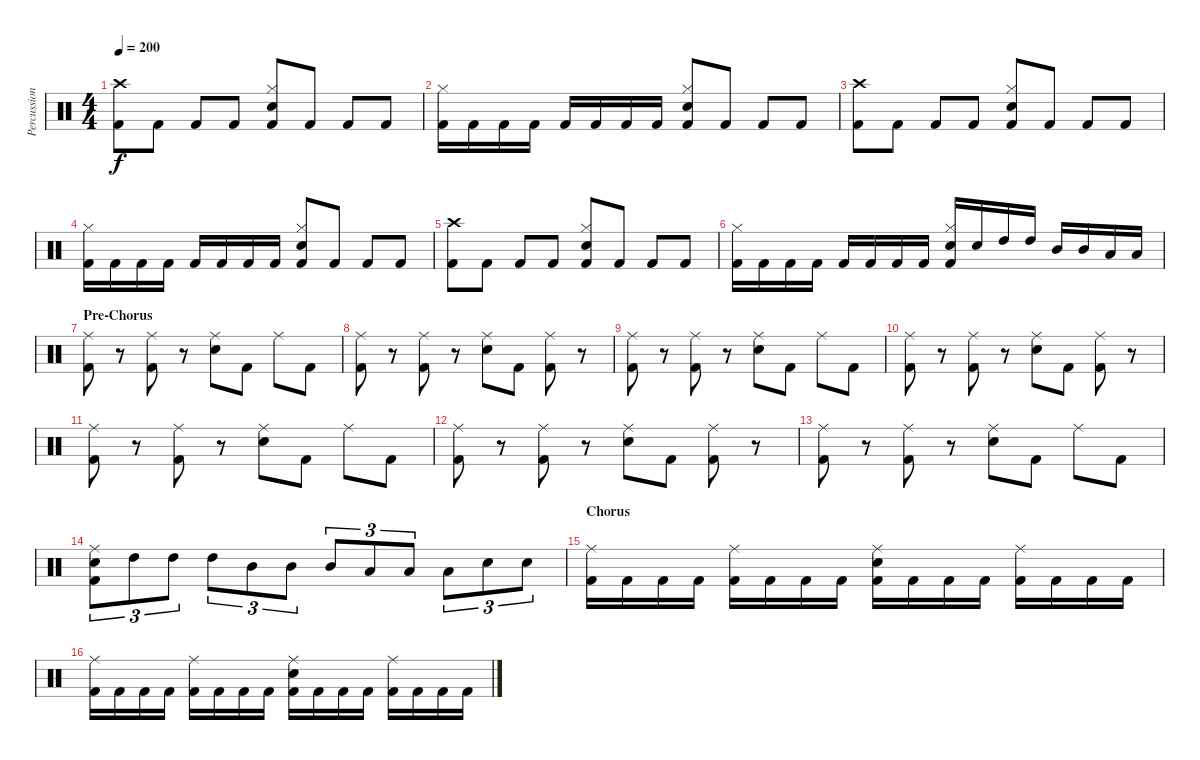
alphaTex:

\track ("Percussions" "Percussion") {instrument percussion}
\staff {score}
\articulation defaults
\ts (4 4)
\tempo 200
\clef neutral
\ks c
("Crash high (hit)" "Kick (hit) 2").8{dy f} "Kick (hit) 2".8 "Kick (hit) 2".8 "Kick (hit) 2".8 ("Hi-Hat (closed)" "Electric Snare (hit)" "Kick (hit) 2").8 "Kick (hit) 2".8 "Kick (hit) 2".8 "Kick (hit) 2".8 |
("Hi-Hat (closed)" "Kick (hit) 2").16 "Kick (hit) 2".16 "Kick (hit) 2".16 "Kick (hit) 2".16 "Kick (hit) 2".16 "Kick (hit) 2".16 "Kick (hit) 2".16 "Kick (hit) 2".16 ("Hi-Hat (closed)" "Electric Snare (hit)" "Kick (hit) 2").8 "Kick (hit) 2".8 "Kick (hit) 2".8 "Kick (hit) 2".8 |
("Crash high (hit)" "Kick (hit) 2").8 "Kick (hit) 2".8 "Kick (hit) 2".8 "Kick (hit) 2".8 ("Hi-Hat (closed)" "Electric Snare (hit)" "Kick (hit) 2").8 "Kick (hit) 2".8 "Kick (hit) 2".8 "Kick (hit) 2".8 |
("Hi-Hat (closed)" "Kick (hit) 2").16 "Kick (hit) 2".16 "Kick (hit) 2".16 "Kick (hit) 2".16 "Kick (hit) 2".16 "Kick (hit) 2".16 "Kick (hit) 2".16 "Kick (hit) 2".16 ("Hi-Hat (closed)" "Electric Snare (hit)" "Kick (hit) 2").8 "Kick (hit) 2".8 "Kick (hit) 2".8 "Kick (hit) 2".8 |
("Crash high (hit)" "Kick (hit) 2").8 "Kick (hit) 2".8 "Kick (hit) 2".8 "Kick (hit) 2".8 ("Hi-Hat (closed)" "Electric Snare (hit)" "Kick (hit) 2").8 "Kick (hit) 2".8 "Kick (hit) 2".8 "Kick (hit) 2".8 |
("Hi-Hat (closed)" "Kick (hit) 2").16 "Kick (hit) 2".16 "Kick (hit) 2".16 "Kick (hit) 2".16 "Kick (hit) 2".16 "Kick (hit) 2".16 "Kick (hit) 2".16 "Kick (hit) 2".16 ("Hi-Hat (closed)" "Electric Snare (hit)" "Kick (hit) 2").16 "Electric Snare (hit)".16 "High Tom (hit)".16 "High Tom (hit)".16 "Mid Tom (hit)".16 "Mid Tom (hit)".16 "Low Tom (hit)".16 "Low Tom (hit)".16 |
\section ("" "Pre-Chorus")
("Ride (middle)" "Kick (hit) 2").8 r.8 ("Ride (middle)" "Kick (hit) 2").8 r.8 ("Ride (middle)" "Electric Snare (hit)").8 "Kick (hit) 2".8 "Ride (middle)".8 "Kick (hit) 2".8 |
("Ride (middle)" "Kick (hit) 2").8 r.8 ("Ride (middle)" "Kick (hit) 2").8 r.8 ("Ride (middle)" "Electric Snare (hit)").8 "Kick (hit) 2".8 ("Ride (middle)" "Kick (hit) 2").8 r.8 |
("Ride (middle)" "Kick (hit) 2").8 r.8 ("Ride (middle)" "Kick (hit) 2").8 r.8 ("Ride (middle)" "Electric Snare (hit)").8 "Kick (hit) 2".8 "Ride (middle)".8 "Kick (hit) 2".8 |
("Ride (middle)" "Kick (hit) 2").8 r.8 ("Ride (middle)" "Kick (hit) 2").8 r.8 ("Ride (middle)" "Electric Snare (hit)").8 "Kick (hit) 2".8 ("Ride (middle)" "Kick (hit) 2").8 r.8 |
("Ride (middle)" "Kick (hit) 2").8 r.8 ("Ride (middle)" "Kick (hit) 2").8 r.8 ("Ride (middle)" "Electric Snare (hit)").8 "Kick (hit) 2".8 "Ride (middle)".8 "Kick (hit) 2".8 |
("Ride (middle)" "Kick (hit) 2").8 r.8 ("Ride (middle)" "Kick (hit) 2").8 r.8 ("Ride (middle)" "Electric Snare (hit)").8 "Kick (hit) 2".8 ("Ride (middle)" "Kick (hit) 2").8 r.8 |
("Ride (middle)" "Kick (hit) 2").8 r.8 ("Ride (middle)" "Kick (hit) 2").8 r.8 ("Ride (middle)" "Electric Snare (hit)").8 "Kick (hit) 2".8 "Ride (middle)".8 "Kick (hit) 2".8 |
("Ride (middle)" "Electric Snare (hit)" "Kick (hit) 2").8{tu (3 2)} "High Tom (hit)".8{tu (3 2)} "High Tom (hit)".8{tu (3 2)} "High Tom (hit)".8{tu (3 2)} "Mid Tom (hit)".8{tu (3 2)} "Mid Tom (hit)".8{tu (3 2)} "Mid Tom (hit)".8{tu (3 2)} "Low Tom (hit)".8{tu (3 2)} "Low Tom (hit)".8{tu (3 2)} "Low Tom (hit)".8{tu (3 2)} "Electric Snare (hit)".8{tu (3 2)} "Electric Snare (hit)".8{tu (3 2)} |
\section ("" "Chorus")
("Ride (middle)" "Kick (hit) 2").16 "Kick (hit) 2".16 "Kick (hit) 2".16 "Kick (hit) 2".16 ("Ride (middle)" "Kick (hit) 2").16 "Kick (hit) 2".16 "Kick (hit) 2".16 "Kick (hit) 2".16 ("Ride (middle)" "Electric Snare (hit)" "Kick (hit) 2").16 "Kick (hit) 2".16 "Kick (hit) 2".16 "Kick (hit) 2".16 ("Ride (middle)" "Kick (hit) 2").16 "Kick (hit) 2".16 "Kick (hit) 2".16 "Kick (hit) 2".16 |
("Ride (middle)" "Kick (hit) 2").16 "Kick (hit) 2".16 "Kick (hit) 2".16 "Kick (hit) 2".16 ("Ride (middle)" "Kick (hit) 2").16 "Kick (hit) 2".16 "Kick (hit) 2".16 "Kick (hit) 2".16 ("Ride (middle)" "Electric Snare (hit)" "Kick (hit) 2").16 "Kick (hit) 2".16 "Kick (hit) 2".16 "Kick (hit) 2".16 ("Ride (middle)" "Kick (hit) 2").16 "Kick (hit) 2".16 "Kick (hit) 2".16 "Kick (hit) 2".16
